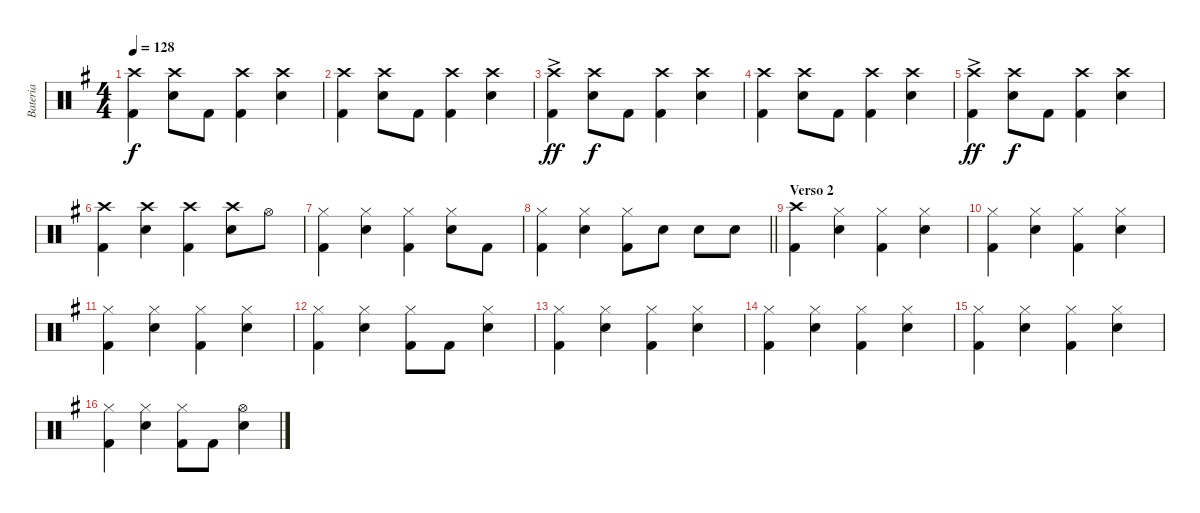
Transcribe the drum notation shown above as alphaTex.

\track ("Bateria" "Bateria") {instrument percussion}
\staff {score}
\articulation defaults
\ts (4 4)
\tempo 128
\clef neutral
\ks g
("Crash high (hit)" "Kick (hit) 2").4{dy f} ("Crash high (hit)" "Snare (hit) 2").8 "Kick (hit) 2".8 ("Crash high (hit)" "Kick (hit) 2").4 ("Crash high (hit)" "Snare (hit) 2").4 |
("Crash high (hit)" "Kick (hit) 2").4 ("Crash high (hit)" "Snare (hit) 2").8 "Kick (hit) 2".8 ("Crash high (hit)" "Kick (hit) 2").4 ("Crash high (hit)" "Snare (hit) 2").4 |
("Crash high (hit)"{ac} "Kick (hit) 2").4{dy ff} ("Crash high (hit)" "Snare (hit) 2").8{dy f} "Kick (hit) 2".8 ("Crash high (hit)" "Kick (hit) 2").4 ("Crash high (hit)" "Snare (hit) 2").4 |
("Crash high (hit)" "Kick (hit) 2").4 ("Crash high (hit)" "Snare (hit) 2").8 "Kick (hit) 2".8 ("Crash high (hit)" "Kick (hit) 2").4 ("Crash high (hit)" "Snare (hit) 2").4 |
("Crash high (hit)"{ac} "Kick (hit) 2").4{dy ff} ("Crash high (hit)" "Snare (hit) 2").8{dy f} "Kick (hit) 2".8 ("Crash high (hit)" "Kick (hit) 2").4 ("Crash high (hit)" "Snare (hit) 2").4 |
("Crash high (hit)" "Kick (hit) 2").4 ("Crash high (hit)" "Snare (hit) 2").4 ("Crash high (hit)" "Kick (hit) 2").4 ("Crash high (hit)" "Snare (hit) 2").8 "Hi-Hat (open)".8 |
("Hi-Hat (closed)" "Kick (hit) 2").4 ("Hi-Hat (closed)" "Snare (hit) 2").4 ("Hi-Hat (closed)" "Kick (hit) 2").4 ("Hi-Hat (closed)" "Snare (hit) 2").8 "Kick (hit) 2".8 |
\barLineRight lightlight
("Hi-Hat (closed)" "Kick (hit) 2").4 ("Hi-Hat (closed)" "Snare (hit) 2").4 ("Hi-Hat (closed)" "Kick (hit) 2").8 "Snare (hit) 2".8 "Snare (hit) 2".8 "Snare (hit) 2".8 |
\section ("" "Verso 2")
("Crash high (hit)" "Kick (hit) 2").4 ("Hi-Hat (closed)" "Snare (hit) 2").4 ("Hi-Hat (closed)" "Kick (hit) 2").4 ("Hi-Hat (closed)" "Snare (hit) 2").4 |
("Hi-Hat (closed)" "Kick (hit) 2").4 ("Hi-Hat (closed)" "Snare (hit) 2").4 ("Hi-Hat (closed)" "Kick (hit) 2").4 ("Hi-Hat (closed)" "Snare (hit) 2").4 |
("Hi-Hat (closed)" "Kick (hit) 2").4 ("Hi-Hat (closed)" "Snare (hit) 2").4 ("Hi-Hat (closed)" "Kick (hit) 2").4 ("Hi-Hat (closed)" "Snare (hit) 2").4 |
("Hi-Hat (closed)" "Kick (hit) 2").4 ("Hi-Hat (closed)" "Snare (hit) 2").4 ("Hi-Hat (closed)" "Kick (hit) 2").8 "Kick (hit) 2".8 ("Hi-Hat (closed)" "Snare (hit) 2").4 |
("Hi-Hat (closed)" "Kick (hit) 2").4 ("Hi-Hat (closed)" "Snare (hit) 2").4 ("Hi-Hat (closed)" "Kick (hit) 2").4 ("Hi-Hat (closed)" "Snare (hit) 2").4 |
("Hi-Hat (closed)" "Kick (hit) 2").4 ("Hi-Hat (closed)" "Snare (hit) 2").4 ("Hi-Hat (closed)" "Kick (hit) 2").4 ("Hi-Hat (closed)" "Snare (hit) 2").4 |
("Hi-Hat (closed)" "Kick (hit) 2").4 ("Hi-Hat (closed)" "Snare (hit) 2").4 ("Hi-Hat (closed)" "Kick (hit) 2").4 ("Hi-Hat (closed)" "Snare (hit) 2").4 |
("Hi-Hat (closed)" "Kick (hit) 2").4 ("Hi-Hat (closed)" "Snare (hit) 2").4 ("Hi-Hat (closed)" "Kick (hit) 2").8 "Kick (hit) 2".8 ("Hi-Hat (open)" "Snare (hit) 2").4
